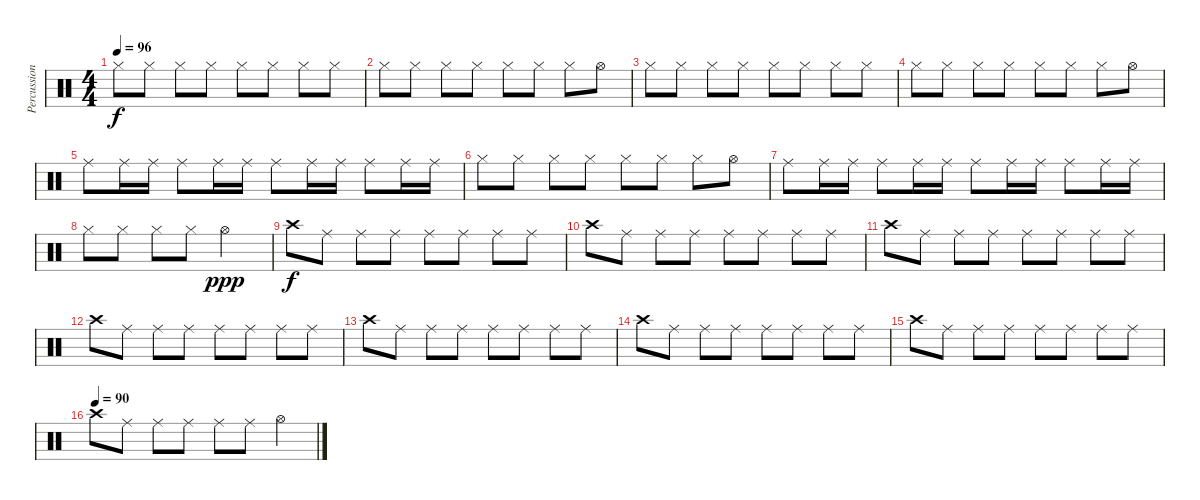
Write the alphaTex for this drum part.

\track ("Percussion" "Percussion") {instrument percussion}
\staff {score}
\articulation defaults
\ts (4 4)
\tempo 96
\clef neutral
\ks c "Hi-Hat (closed)".8{dy f} "Hi-Hat (closed)".8 "Hi-Hat (closed)".8 "Hi-Hat (closed)".8 "Hi-Hat (closed)".8 "Hi-Hat (closed)".8 "Hi-Hat (closed)".8 "Hi-Hat (closed)".8
|
"Hi-Hat (closed)".8 "Hi-Hat (closed)".8 "Hi-Hat (closed)".8 "Hi-Hat (closed)".8 "Hi-Hat (closed)".8 "Hi-Hat (closed)".8 "Hi-Hat (closed)".8 "Hi-Hat (open)".8 |
"Hi-Hat (closed)".8 "Hi-Hat (closed)".8 "Hi-Hat (closed)".8 "Hi-Hat (closed)".8 "Hi-Hat (closed)".8 "Hi-Hat (closed)".8 "Hi-Hat (closed)".8 "Hi-Hat (closed)".8 |
"Hi-Hat (closed)".8 "Hi-Hat (closed)".8 "Hi-Hat (closed)".8 "Hi-Hat (closed)".8 "Hi-Hat (closed)".8 "Hi-Hat (closed)".8 "Hi-Hat (closed)".8 "Hi-Hat (open)".8 |
"Ride (middle)".8 "Ride (middle)".16 "Ride (middle)".16 "Ride (middle)".8 "Ride (middle)".16 "Ride (middle)".16 "Ride (middle)".8 "Ride (middle)".16 "Ride (middle)".16 "Ride (middle)".8 "Ride (middle)".16 "Ride (middle)".16 |
"Hi-Hat (closed)".8 "Hi-Hat (closed)".8 "Hi-Hat (closed)".8 "Hi-Hat (closed)".8 "Hi-Hat (closed)".8 "Hi-Hat (closed)".8 "Hi-Hat (closed)".8 "Hi-Hat (open)".8 |
"Ride (middle)".8 "Ride (middle)".16 "Ride (middle)".16 "Ride (middle)".8 "Ride (middle)".16 "Ride (middle)".16 "Ride (middle)".8 "Ride (middle)".16 "Ride (middle)".16 "Ride (middle)".8 "Ride (middle)".16 "Ride (middle)".16 |
"Hi-Hat (closed)".8 "Hi-Hat (closed)".8 "Hi-Hat (closed)".8 "Hi-Hat (closed)".8 "Hi-Hat (open)".2{dy ppp} |
"Crash high (hit)".8{dy f} "Ride (middle)".8 "Ride (middle)".8 "Ride (middle)".8 "Ride (middle)".8 "Ride (middle)".8 "Ride (middle)".8 "Ride (middle)".8 |
"Crash high (hit)".8 "Ride (middle)".8 "Ride (middle)".8 "Ride (middle)".8 "Ride (middle)".8 "Ride (middle)".8 "Ride (middle)".8 "Ride (middle)".8 |
"Crash high (hit)".8 "Ride (middle)".8 "Ride (middle)".8 "Ride (middle)".8 "Ride (middle)".8 "Ride (middle)".8 "Ride (middle)".8 "Ride (middle)".8 |
"Crash high (hit)".8 "Ride (middle)".8 "Ride (middle)".8 "Ride (middle)".8 "Ride (middle)".8 "Ride (middle)".8 "Ride (middle)".8 "Ride (middle)".8 |
"Crash high (hit)".8 "Ride (middle)".8 "Ride (middle)".8 "Ride (middle)".8 "Ride (middle)".8 "Ride (middle)".8 "Ride (middle)".8 "Ride (middle)".8 |
"Crash high (hit)".8 "Ride (middle)".8 "Ride (middle)".8 "Ride (middle)".8 "Ride (middle)".8 "Ride (middle)".8 "Ride (middle)".8 "Ride (middle)".8 |
"Crash high (hit)".8 "Ride (middle)".8 "Ride (middle)".8 "Ride (middle)".8 "Ride (middle)".8 "Ride (middle)".8 "Ride (middle)".8 "Ride (middle)".8 |
\tempo (90)
"Crash high (hit)".8 "Ride (middle)".8 "Ride (middle)".8 "Ride (middle)".8 "Ride (middle)".8 "Ride (middle)".8 "Hi-Hat (open)".4
